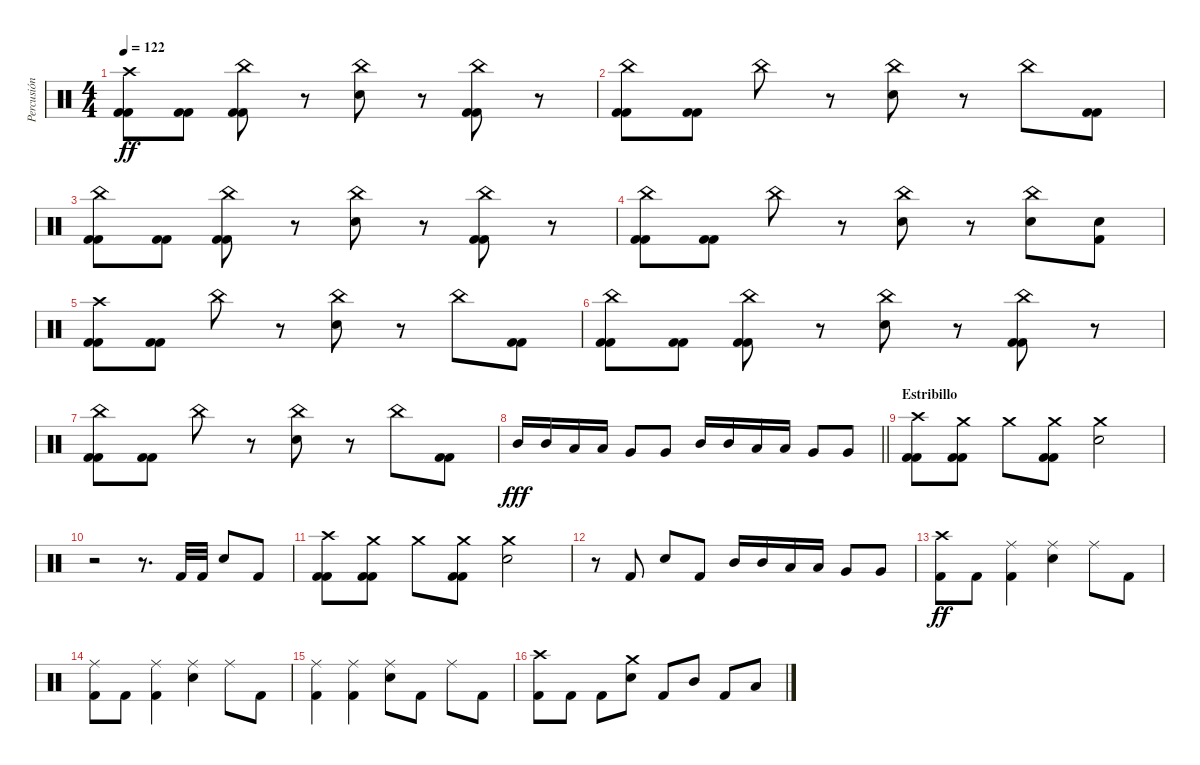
\track ("Percusión" "Percusión") {instrument percussion}
\staff {score}
\articulation defaults
\ts (4 4)
\tempo 122
\clef neutral
\ks c
("Crash high (hit)" "Kick (hit) 2" "Kick (hit) 2").8{dy ff} ("Kick (hit) 2" "Kick (hit) 2").8 ("China (hit)" "Kick (hit) 2" "Kick (hit) 2").8 r.8 ("China (hit)" "Snare (hit) 2").8 r.8 ("China (hit)" "Kick (hit) 2" "Kick (hit) 2").8 r.8 |
("China (hit)" "Kick (hit) 2" "Kick (hit) 2").8 ("Kick (hit) 2" "Kick (hit) 2").8 "China (hit)".8 r.8 ("China (hit)" "Snare (hit) 2").8 r.8 "China (hit)".8 ("Kick (hit) 2" "Kick (hit) 2").8 |
("China (hit)" "Kick (hit) 2" "Kick (hit) 2").8 ("Kick (hit) 2" "Kick (hit) 2").8 ("China (hit)" "Kick (hit) 2" "Kick (hit) 2").8 r.8 ("China (hit)" "Snare (hit) 2").8 r.8 ("China (hit)" "Kick (hit) 2" "Kick (hit) 2").8 r.8 |
("China (hit)" "Kick (hit) 2" "Kick (hit) 2").8 ("Kick (hit) 2" "Kick (hit) 2").8 "China (hit)".8 r.8 ("China (hit)" "Snare (hit) 2").8 r.8 ("China (hit)" "Snare (hit) 2").8 ("Snare (hit) 2" "Kick (hit) 2").8 |
("Crash high (hit)" "Kick (hit) 2" "Kick (hit) 2").8 ("Kick (hit) 2" "Kick (hit) 2").8 "China (hit)".8 r.8 ("China (hit)" "Snare (hit) 2").8 r.8 "China (hit)".8 ("Kick (hit) 2" "Kick (hit) 2").8 |
("China (hit)" "Kick (hit) 2" "Kick (hit) 2").8 ("Kick (hit) 2" "Kick (hit) 2").8 ("China (hit)" "Kick (hit) 2" "Kick (hit) 2").8 r.8 ("China (hit)" "Snare (hit) 2").8 r.8 ("China (hit)" "Kick (hit) 2" "Kick (hit) 2").8 r.8 |
("China (hit)" "Kick (hit) 2" "Kick (hit) 2").8 ("Kick (hit) 2" "Kick (hit) 2").8 "China (hit)".8 r.8 ("China (hit)" "Snare (hit) 2").8 r.8 "China (hit)".8 ("Kick (hit) 2" "Kick (hit) 2").8 |
\barLineRight lightlight "Mid Tom (hit)".16{dy fff} "Mid Tom (hit)".16 "Low Tom (hit)".16 "Low Tom (hit)".16 "Very Low Tom (hit)".8 "Very Low Tom (hit)".8 "Mid Tom (hit)".16 "Mid Tom (hit)".16 "Low Tom (hit)".16 "Low Tom (hit)".16 "Very Low Tom (hit)".8 "Very Low Tom (hit)".8
|
\section ("" "Estribillo")
("Crash high (hit)" "Kick (hit) 2" "Kick (hit) 2").8 ("Crash medium (hit)" "Kick (hit) 2" "Kick (hit) 2").8 "Crash medium (hit)".8 ("Crash medium (hit)" "Kick (hit) 2" "Kick (hit) 2").8 ("Crash medium (hit)" "Snare (hit) 2").2 |
r.2 r.8{d} "Kick (hit) 2".32 "Kick (hit) 2".32 "Snare (hit) 2".8 "Kick (hit) 2".8 |
("Crash high (hit)" "Kick (hit) 2" "Kick (hit) 2").8 ("Crash medium (hit)" "Kick (hit) 2" "Kick (hit) 2").8 "Crash medium (hit)".8 ("Crash medium (hit)" "Kick (hit) 2" "Kick (hit) 2").8 ("Crash medium (hit)" "Snare (hit) 2").2 |
r.8 "Kick (hit) 2".8 "Snare (hit) 2".8 "Kick (hit) 2".8 "Mid Tom (hit)".16 "Mid Tom (hit)".16 "Low Tom (hit)".16 "Low Tom (hit)".16 "Very Low Tom (hit)".8 "Very Low Tom (hit)".8 |
("Crash high (hit)" "Kick (hit) 2").8{dy ff} "Kick (hit) 2".8 ("Ride (middle)" "Kick (hit) 2").4 ("Ride (middle)" "Snare (hit) 2").4 "Ride (middle)".8 "Kick (hit) 2".8 |
("Ride (middle)" "Kick (hit) 2").8 "Kick (hit) 2".8 ("Ride (middle)" "Kick (hit) 2").4 ("Ride (middle)" "Snare (hit) 2").4 "Ride (middle)".8 "Kick (hit) 2".8 |
("Ride (middle)" "Kick (hit) 2").4 ("Ride (middle)" "Kick (hit) 2").4 ("Ride (middle)" "Snare (hit) 2").8 "Kick (hit) 2".8 "Ride (middle)".8 "Kick (hit) 2".8 |
("Crash high (hit)" "Kick (hit) 2").8 "Kick (hit) 2".8 "Kick (hit) 2".8 ("Crash medium (hit)" "Snare (hit) 2").8 "Kick (hit) 2".8 "Mid Tom (hit)".8 "Kick (hit) 2".8 "Low Tom (hit)".8
